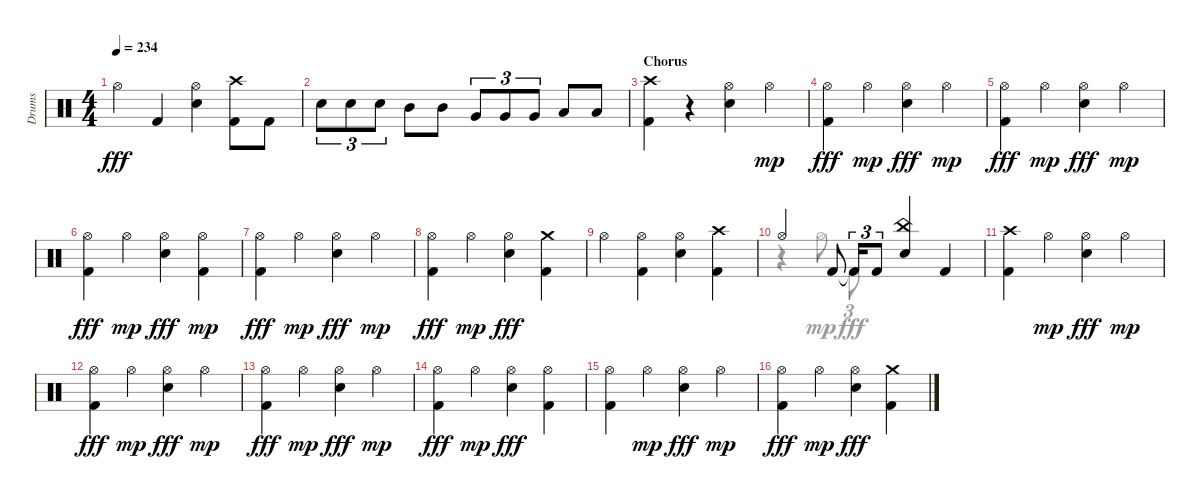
\track ("Drums" "Drums") {instrument percussion}
\staff {score}
\articulation defaults
\voice
\ts (4 4)
\tempo 234
\clef neutral
\ks aminor "Hi-Hat (open)".4{dy fff} "Kick (hit) 2".4
("Hi-Hat (open)" "Snare (hit) 2").4 ("Kick (hit) 2" "Crash high (hit)").8 "Kick (hit) 2".8 |
"Hand Clap (hit)".8{tu (3 2)} "Hand Clap (hit)".8{tu (3 2)} "Hand Clap (hit)".8{tu (3 2)} "Mid Tom (hit)".8 "Mid Tom (hit)".8 "Very Low Tom (hit)".8{tu (3 2)} "Very Low Tom (hit)".8{tu (3 2)} "Very Low Tom (hit)".8{tu (3 2)} "Low Floor Tom (hit)".8 "Low Floor Tom (hit)".8 |
\section ("" "Chorus")
("Crash high (hit)" "Kick (hit) 2").4 r.4 ("Hi-Hat (open)" "Snare (hit) 2").4 "Hi-Hat (open)".4{dy mp} |
("Kick (hit) 2" "Hi-Hat (open)").4{dy fff} "Hi-Hat (open)".4{dy mp} ("Snare (hit) 2" "Hi-Hat (open)").4{dy fff} "Hi-Hat (open)".4{dy mp} |
("Hi-Hat (open)" "Kick (hit) 2").4{dy fff} "Hi-Hat (open)".4{dy mp} ("Hi-Hat (open)" "Snare (hit) 2").4{dy fff} "Hi-Hat (open)".4{dy mp} |
("Hi-Hat (open)" "Kick (hit) 2").4{dy fff} "Hi-Hat (open)".4{dy mp} ("Snare (hit) 2" "Hi-Hat (open)").4{dy fff} ("Hi-Hat (open)" "Kick (hit) 2").4{dy mp} |
("Hi-Hat (open)" "Kick (hit) 2").4{dy fff} "Hi-Hat (open)".4{dy mp} ("Hi-Hat (open)" "Snare (hit) 2").4{dy fff} "Hi-Hat (open)".4{dy mp} |
("Hi-Hat (open)" "Kick (hit) 2").4{dy fff} "Hi-Hat (open)".4{dy mp} ("Hi-Hat (open)" "Snare (hit) 2").4{dy fff} ("Kick (hit) 2" "Crash medium (hit)").4 |
"Hi-Hat (open)".4 ("Hi-Hat (open)" "Kick (hit) 2").4 ("Hi-Hat (open)" "Snare (hit) 2").4 ("Kick (hit) 2" "Crash high (hit)").4 |
"Hi-Hat (open)".4 "Kick (hit) 2".8 "Kick (hit) 2"{t}.16{tu (3 2)} "Kick (hit) 2".8{tu (3 2)} ("Snare (hit) 2" "China (hit)").4 "Kick (hit) 2".4 |
("Crash high (hit)" "Kick (hit) 2").4 "Hi-Hat (open)".4{dy mp} ("Snare (hit) 2" "Hi-Hat (open)").4{dy fff} "Hi-Hat (open)".4{dy mp} |
("Kick (hit) 2" "Hi-Hat (open)").4{dy fff} "Hi-Hat (open)".4{dy mp} ("Snare (hit) 2" "Hi-Hat (open)").4{dy fff} "Hi-Hat (open)".4{dy mp} |
("Kick (hit) 2" "Hi-Hat (open)").4{dy fff} "Hi-Hat (open)".4{dy mp} ("Hi-Hat (open)" "Snare (hit) 2").4{dy fff} "Hi-Hat (open)".4{dy mp} |
("Kick (hit) 2" "Hi-Hat (open)").4{dy fff} "Hi-Hat (open)".4{dy mp} ("Snare (hit) 2" "Hi-Hat (open)").4{dy fff} ("Hi-Hat (open)" "Kick (hit) 2").4 |
("Kick (hit) 2" "Hi-Hat (open)").4 "Hi-Hat (open)".4{dy mp} ("Hi-Hat (open)" "Snare (hit) 2").4{dy fff} "Hi-Hat (open)".4{dy mp} |
("Kick (hit) 2" "Hi-Hat (open)").4{dy fff} "Hi-Hat (open)".4{dy mp} ("Hi-Hat (open)" "Snare (hit) 2").4{dy fff} ("Kick (hit) 2" "Crash medium (hit)").4
\voice
\clef neutral
\ottava regular
\simile none
\ks aminor
|
|
|
|
|
|
|
|
|
r.4 "Hi-Hat (open)".8{dy mp} "Kick (hit) 2".8{tu (3 2) dy fff} |
|
|
|
|
|
